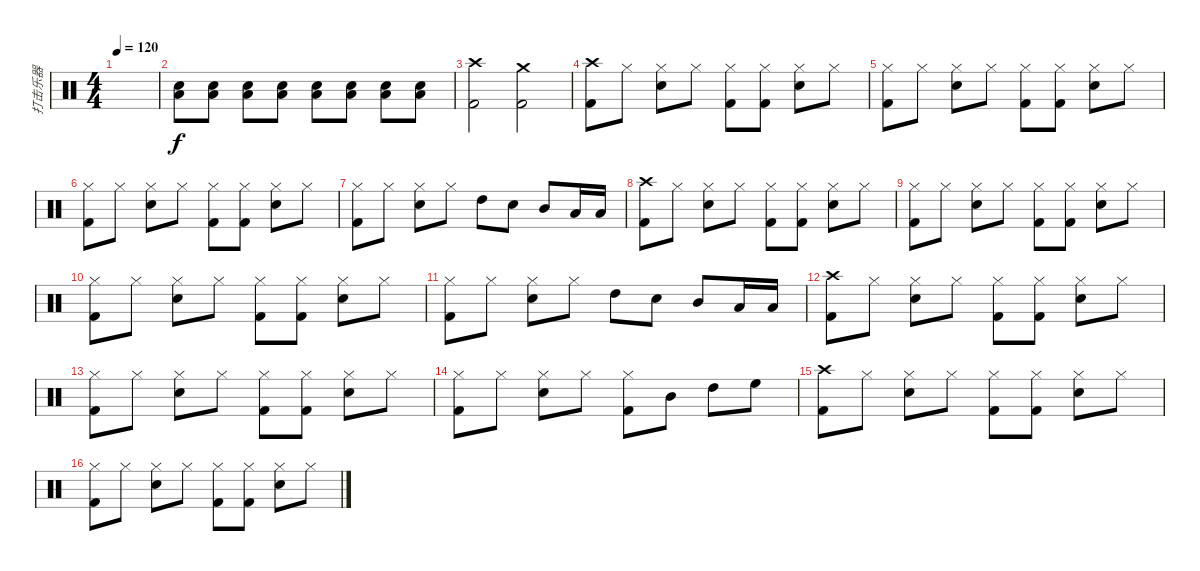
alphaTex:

\track ("打击乐器" "打击乐器") {instrument percussion}
\staff {score}
\articulation defaults
\ts (4 4)
\tempo 120
\clef neutral
\ks c
|
("Electric Snare (hit)" "Low Floor Tom (hit)").8 ("Electric Snare (hit)" "Low Floor Tom (hit)").8 ("Electric Snare (hit)" "Low Floor Tom (hit)").8 ("Electric Snare (hit)" "Low Floor Tom (hit)").8 ("Electric Snare (hit)" "Low Floor Tom (hit)").8 ("Electric Snare (hit)" "Low Floor Tom (hit)").8 ("Electric Snare (hit)" "Low Floor Tom (hit)").8 ("Electric Snare (hit)" "Low Floor Tom (hit)").8 |
("Crash high (hit)" "Kick (hit) 2").2 ("Crash medium (hit)" "Kick (hit) 2").2 |
("Crash high (hit)" "Kick (hit) 2").8 "Hi-Hat (closed)".8 ("Hi-Hat (closed)" "Electric Snare (hit)").8 "Hi-Hat (closed)".8 ("Hi-Hat (closed)" "Kick (hit) 2").8 ("Hi-Hat (closed)" "Kick (hit) 2").8 ("Hi-Hat (closed)" "Electric Snare (hit)").8 "Hi-Hat (closed)".8 |
("Hi-Hat (closed)" "Kick (hit) 2").8 "Hi-Hat (closed)".8 ("Hi-Hat (closed)" "Electric Snare (hit)").8 "Hi-Hat (closed)".8 ("Hi-Hat (closed)" "Kick (hit) 2").8 ("Hi-Hat (closed)" "Kick (hit) 2").8 ("Hi-Hat (closed)" "Electric Snare (hit)").8 "Hi-Hat (closed)".8 |
("Hi-Hat (closed)" "Kick (hit) 2").8 "Hi-Hat (closed)".8 ("Hi-Hat (closed)" "Electric Snare (hit)").8 "Hi-Hat (closed)".8 ("Hi-Hat (closed)" "Kick (hit) 2").8 ("Hi-Hat (closed)" "Kick (hit) 2").8 ("Hi-Hat (closed)" "Electric Snare (hit)").8 "Hi-Hat (closed)".8 |
("Hi-Hat (closed)" "Kick (hit) 2").8 "Hi-Hat (closed)".8 ("Hi-Hat (closed)" "Electric Snare (hit)").8 "Hi-Hat (closed)".8 "High Tom (hit)".8 "Electric Snare (hit)".8 "Mid Tom (hit)".8 "Low Tom (hit)".16 "Low Tom (hit)".16 |
("Crash high (hit)" "Kick (hit) 2").8 "Hi-Hat (closed)".8 ("Hi-Hat (closed)" "Electric Snare (hit)").8 "Hi-Hat (closed)".8 ("Hi-Hat (closed)" "Kick (hit) 2").8 ("Hi-Hat (closed)" "Kick (hit) 2").8 ("Hi-Hat (closed)" "Electric Snare (hit)").8 "Hi-Hat (closed)".8 |
("Hi-Hat (closed)" "Kick (hit) 2").8 "Hi-Hat (closed)".8 ("Hi-Hat (closed)" "Electric Snare (hit)").8 "Hi-Hat (closed)".8 ("Hi-Hat (closed)" "Kick (hit) 2").8 ("Hi-Hat (closed)" "Kick (hit) 2").8 ("Hi-Hat (closed)" "Electric Snare (hit)").8 "Hi-Hat (closed)".8 |
("Hi-Hat (closed)" "Kick (hit) 2").8 "Hi-Hat (closed)".8 ("Hi-Hat (closed)" "Electric Snare (hit)").8 "Hi-Hat (closed)".8 ("Hi-Hat (closed)" "Kick (hit) 2").8 ("Hi-Hat (closed)" "Kick (hit) 2").8 ("Hi-Hat (closed)" "Electric Snare (hit)").8 "Hi-Hat (closed)".8 |
("Hi-Hat (closed)" "Kick (hit) 2").8 "Hi-Hat (closed)".8 ("Hi-Hat (closed)" "Electric Snare (hit)").8 "Hi-Hat (closed)".8 "High Tom (hit)".8 "Electric Snare (hit)".8 "Mid Tom (hit)".8 "Low Tom (hit)".16 "Low Tom (hit)".16 |
("Crash high (hit)" "Kick (hit) 2").8 "Hi-Hat (closed)".8 ("Hi-Hat (closed)" "Electric Snare (hit)").8 "Hi-Hat (closed)".8 ("Hi-Hat (closed)" "Kick (hit) 2").8 ("Hi-Hat (closed)" "Kick (hit) 2").8 ("Hi-Hat (closed)" "Electric Snare (hit)").8 "Hi-Hat (closed)".8 |
("Hi-Hat (closed)" "Kick (hit) 2").8 "Hi-Hat (closed)".8 ("Hi-Hat (closed)" "Electric Snare (hit)").8 "Hi-Hat (closed)".8 ("Hi-Hat (closed)" "Kick (hit) 2").8 ("Hi-Hat (closed)" "Kick (hit) 2").8 ("Hi-Hat (closed)" "Electric Snare (hit)").8 "Hi-Hat (closed)".8 |
("Hi-Hat (closed)" "Kick (hit) 2").8 "Hi-Hat (closed)".8 ("Hi-Hat (closed)" "Electric Snare (hit)").8 "Hi-Hat (closed)".8 ("Hi-Hat (closed)" "Kick (hit) 2").8 "Mid Tom (hit)".8 "High Tom (hit)".8 "High Floor Tom (hit)".8 |
("Crash high (hit)" "Kick (hit) 2").8 "Hi-Hat (closed)".8 ("Hi-Hat (closed)" "Electric Snare (hit)").8 "Hi-Hat (closed)".8 ("Hi-Hat (closed)" "Kick (hit) 2").8 ("Hi-Hat (closed)" "Kick (hit) 2").8 ("Hi-Hat (closed)" "Electric Snare (hit)").8 "Hi-Hat (closed)".8 |
("Hi-Hat (closed)" "Kick (hit) 2").8 "Hi-Hat (closed)".8 ("Hi-Hat (closed)" "Electric Snare (hit)").8 "Hi-Hat (closed)".8 ("Hi-Hat (closed)" "Kick (hit) 2").8 ("Hi-Hat (closed)" "Kick (hit) 2").8 ("Hi-Hat (closed)" "Electric Snare (hit)").8 "Hi-Hat (closed)".8
